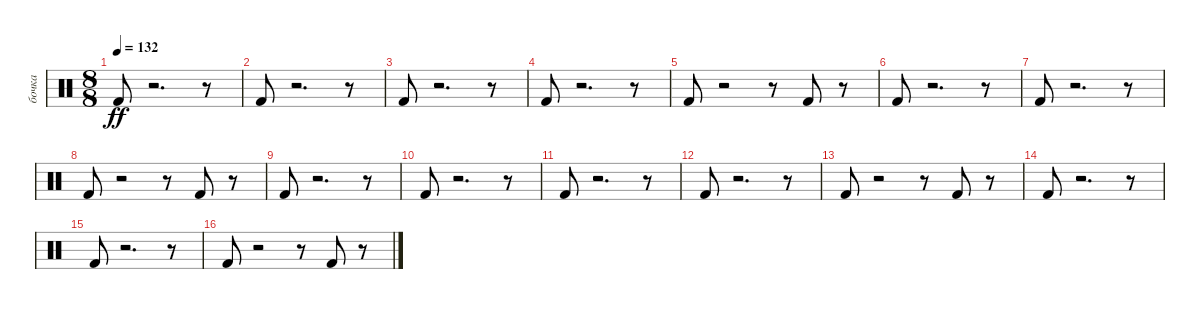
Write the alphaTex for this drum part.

\track ("бочка" "бочка") {instrument percussion}
\staff {score}
\articulation defaults
\ts (8 8)
\tempo 132
\clef neutral
\ks c "Kick (hit) 2".8{dy ff}
r.2{d} r.8 |
"Kick (hit) 2".8 r.2{d} r.8 |
"Kick (hit) 2".8 r.2{d} r.8 |
"Kick (hit) 2".8 r.2{d} r.8 |
"Kick (hit) 2".8 r.2 r.8 "Kick (hit) 2".8 r.8 |
"Kick (hit) 2".8 r.2{d} r.8 |
"Kick (hit) 2".8 r.2{d} r.8 |
"Kick (hit) 2".8 r.2 r.8 "Kick (hit) 2".8 r.8 |
"Kick (hit) 2".8 r.2{d} r.8 |
"Kick (hit) 2".8 r.2{d} r.8 |
"Kick (hit) 2".8 r.2{d} r.8 |
"Kick (hit) 2".8 r.2{d} r.8 |
"Kick (hit) 2".8 r.2 r.8 "Kick (hit) 2".8 r.8 |
"Kick (hit) 2".8 r.2{d} r.8 |
"Kick (hit) 2".8 r.2{d} r.8 |
"Kick (hit) 2".8 r.2 r.8 "Kick (hit) 2".8 r.8
